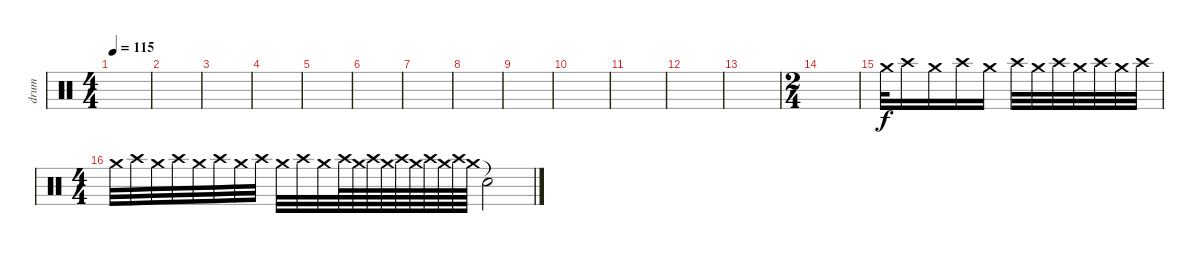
\track ("drum" "drum") {instrument percussion}
\staff {score}
\articulation defaults
\ts (4 4)
\tempo 115
\clef neutral
\ks c
|
|
|
|
|
|
|
|
|
|
|
|
|
\ts (2 4)
|
"Crash medium (hit)".32{volume 2} "Crash high (hit)".16{volume 15} "Crash medium (hit)".16 "Crash high (hit)".16 "Crash medium (hit)".16 "Crash high (hit)".32 "Crash medium (hit)".32 "Crash high (hit)".32 "Crash medium (hit)".32 "Crash high (hit)".32 "Crash medium (hit)".32 "Crash high (hit)".32 |
\ts (4 4)
"Crash medium (hit)".32 "Crash high (hit)".32 "Crash medium (hit)".32 "Crash high (hit)".32 "Crash medium (hit)".32 "Crash high (hit)".32 "Crash medium (hit)".32 "Crash high (hit)".32 "Crash medium (hit)".32 "Crash high (hit)".32 "Crash medium (hit)".32 "Crash high (hit)".64 "Crash medium (hit)".64 "Crash high (hit)".64 "Crash medium (hit)".64 "Crash high (hit)".64 "Crash medium (hit)".64 "Crash high (hit)".64 "Crash medium (hit)".64 "Crash high (hit)".64 "Crash medium (hit)".64 "Snare (hit)"{t}.2
